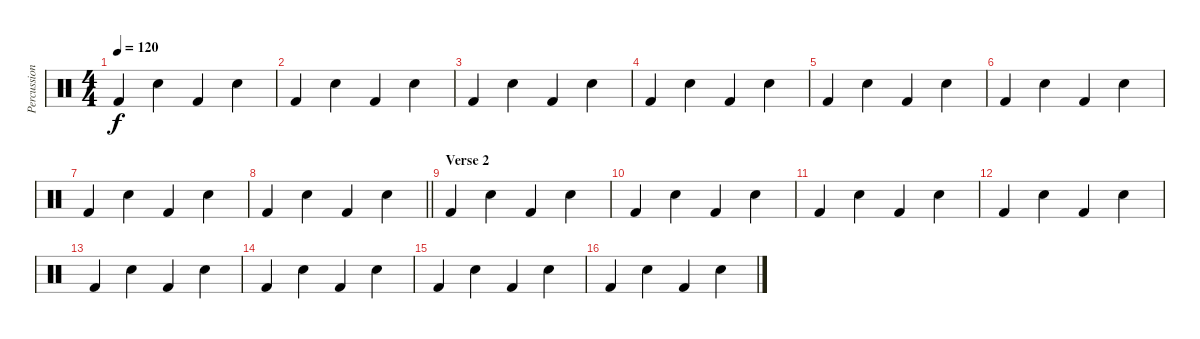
\track ("Percussion" "Percussion") {instrument percussion}
\staff {score}
\articulation defaults
\ts (4 4)
\tempo 120
\clef neutral
\ks c "Kick (hit) 2".4{dy f} "Snare (hit) 2".4 "Kick (hit) 2".4 "Snare (hit) 2".4
|
"Kick (hit) 2".4 "Snare (hit) 2".4 "Kick (hit) 2".4 "Snare (hit) 2".4 |
"Kick (hit) 2".4 "Snare (hit) 2".4 "Kick (hit) 2".4 "Snare (hit) 2".4 |
"Kick (hit) 2".4 "Snare (hit) 2".4 "Kick (hit) 2".4 "Snare (hit) 2".4 |
"Kick (hit) 2".4 "Snare (hit) 2".4 "Kick (hit) 2".4 "Snare (hit) 2".4 |
"Kick (hit) 2".4 "Snare (hit) 2".4 "Kick (hit) 2".4 "Snare (hit) 2".4 |
"Kick (hit) 2".4 "Snare (hit) 2".4 "Kick (hit) 2".4 "Snare (hit) 2".4 |
\barLineRight lightlight "Kick (hit) 2".4 "Snare (hit) 2".4 "Kick (hit) 2".4 "Snare (hit) 2".4
|
\section ("" "Verse 2")
"Kick (hit) 2".4 "Snare (hit) 2".4 "Kick (hit) 2".4 "Snare (hit) 2".4 |
"Kick (hit) 2".4 "Snare (hit) 2".4 "Kick (hit) 2".4 "Snare (hit) 2".4 |
"Kick (hit) 2".4 "Snare (hit) 2".4 "Kick (hit) 2".4 "Snare (hit) 2".4 |
"Kick (hit) 2".4 "Snare (hit) 2".4 "Kick (hit) 2".4 "Snare (hit) 2".4 |
"Kick (hit) 2".4 "Snare (hit) 2".4 "Kick (hit) 2".4 "Snare (hit) 2".4 |
"Kick (hit) 2".4 "Snare (hit) 2".4 "Kick (hit) 2".4 "Snare (hit) 2".4 |
"Kick (hit) 2".4 "Snare (hit) 2".4 "Kick (hit) 2".4 "Snare (hit) 2".4 |
"Kick (hit) 2".4 "Snare (hit) 2".4 "Kick (hit) 2".4 "Snare (hit) 2".4
